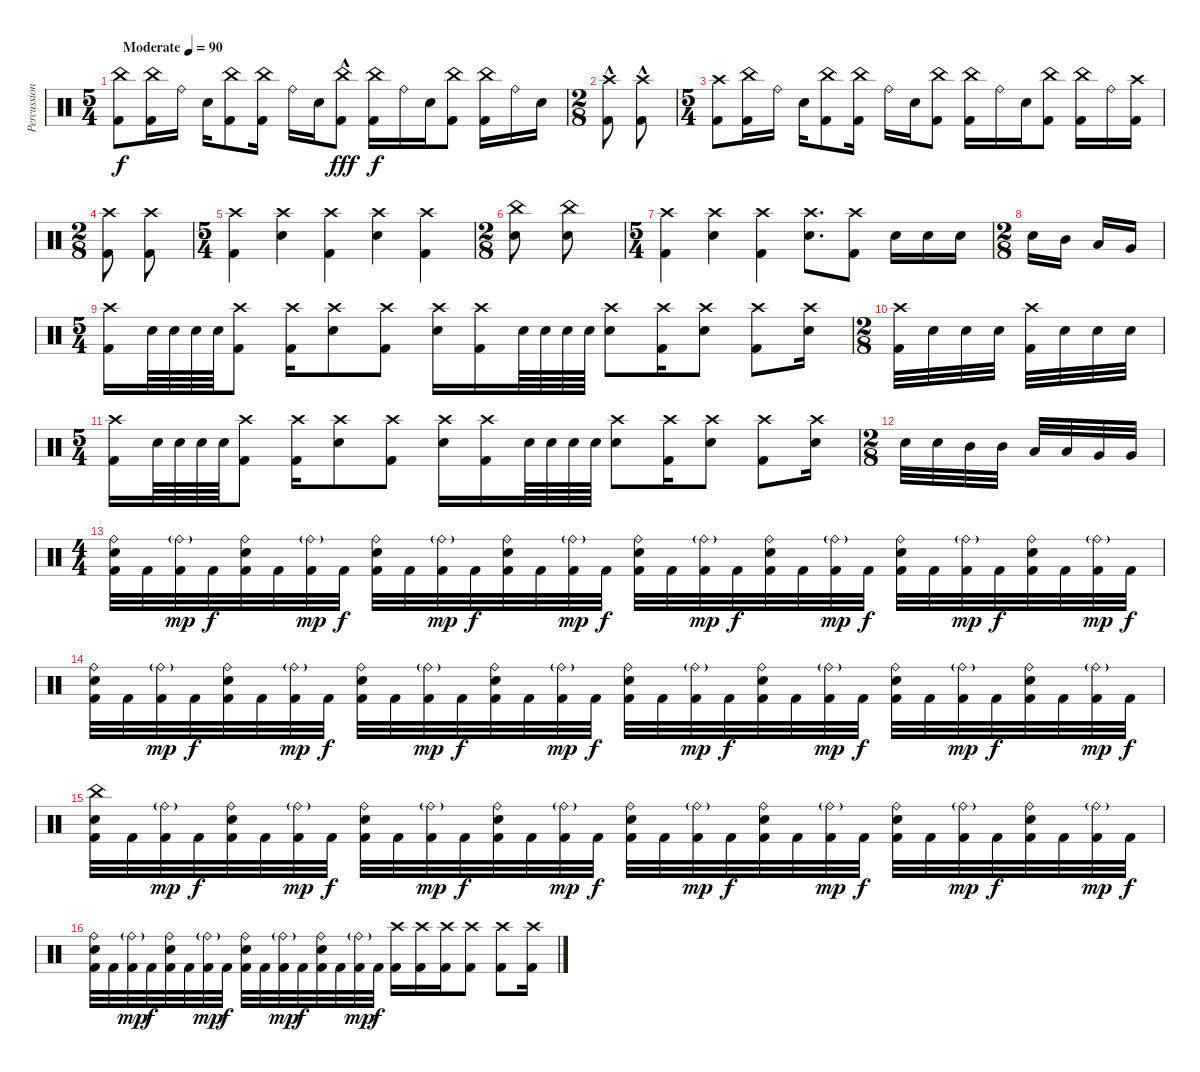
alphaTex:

\track ("Percussion" "Percussion") {instrument percussion}
\staff {score}
\articulation defaults
\ts (5 4)
\tempo (90 "Moderate")
\clef neutral
\ks c
("China (hit)" "Kick (hit) 2").8{dy f} ("China (hit)" "Kick (hit) 2").16 "Ride (bell)".16 "Snare (hit) 2".16 ("China (hit)" "Kick (hit) 2").8 ("China (hit)" "Kick (hit) 2").16 "Ride (bell)".16 "Snare (hit) 2".16 ("China (hit)" "Kick (hit) 2"{hac}).8{dy fff} ("China (hit)" "Kick (hit) 2").16{dy f} "Ride (bell)".16 "Snare (hit) 2".16 ("China (hit)" "Kick (hit) 2").8 ("China (hit)" "Kick (hit) 2").16 "Ride (bell)".16 "Snare (hit) 2".16 |
\ts (2 8)
("Crash high (hit)" "Kick (hit) 2"{hac}).8 ("Crash high (hit)" "Kick (hit) 2"{hac}).8 |
\ts (5 4)
("Crash high (hit)" "Kick (hit) 2").8 ("China (hit)" "Kick (hit) 2").16 "Ride (bell)".16 "Snare (hit) 2".16 ("China (hit)" "Kick (hit) 2").8 ("China (hit)" "Kick (hit) 2").16 "Ride (bell)".16 "Snare (hit) 2".16 ("China (hit)" "Kick (hit) 2").8 ("China (hit)" "Kick (hit) 2").16 "Ride (bell)".16 "Snare (hit) 2".16 ("China (hit)" "Kick (hit) 2").8 ("China (hit)" "Kick (hit) 2").16 "Ride (bell)".16 ("Crash high (hit)" "Kick (hit) 2").16 |
\ts (2 8)
("Crash high (hit)" "Kick (hit) 2").8 ("Crash high (hit)" "Kick (hit) 2").8 |
\ts (5 4)
("Crash high (hit)" "Kick (hit) 2").4 ("Crash high (hit)" "Snare (hit) 2").4 ("Crash high (hit)" "Kick (hit) 2").4 ("Crash high (hit)" "Snare (hit) 2").4 ("Crash high (hit)" "Kick (hit) 2").4 |
\ts (2 8)
("China (hit)" "Snare (hit) 2").8 ("China (hit)" "Snare (hit) 2").8 |
\ts (5 4)
("Crash high (hit)" "Kick (hit) 2").4 ("Crash high (hit)" "Snare (hit) 2").4 ("Crash high (hit)" "Kick (hit) 2").4 ("Crash high (hit)" "Snare (hit) 2").8{d} ("Crash high (hit)" "Kick (hit) 2").8 "Snare (hit) 2".16 "Snare (hit) 2".16 "Snare (hit) 2".16 |
\ts (2 8)
"Snare (hit) 2".16 "Mid Tom (hit)".16 "Low Tom (hit)".16 "Very Low Tom (hit)".16 |
\ts (5 4)
("Crash high (hit)" "Kick (hit) 2").16 "Snare (hit) 2".64 "Snare (hit) 2".64 "Snare (hit) 2".64 "Snare (hit) 2".64 ("Crash high (hit)" "Kick (hit) 2").8 ("Crash high (hit)" "Kick (hit) 2").16 ("Crash high (hit)" "Snare (hit) 2").8 ("Crash high (hit)" "Kick (hit) 2").8 ("Crash high (hit)" "Snare (hit) 2").16 ("Crash high (hit)" "Kick (hit) 2").16 "Snare (hit) 2".64 "Snare (hit) 2".64 "Snare (hit) 2".64 "Snare (hit) 2".64 ("Crash high (hit)" "Snare (hit) 2").8 ("Crash high (hit)" "Kick (hit) 2").16 ("Crash high (hit)" "Snare (hit) 2").8 ("Crash high (hit)" "Kick (hit) 2").8 ("Crash high (hit)" "Snare (hit) 2").16 |
\ts (2 8)
("Crash high (hit)" "Kick (hit) 2").32 "Snare (hit) 2".32 "Snare (hit) 2".32 "Snare (hit) 2".32 ("Crash high (hit)" "Kick (hit) 2").32 "Snare (hit) 2".32 "Snare (hit) 2".32 "Snare (hit) 2".32 |
\ts (5 4)
("Crash high (hit)" "Kick (hit) 2").16 "Snare (hit) 2".64 "Snare (hit) 2".64 "Snare (hit) 2".64 "Snare (hit) 2".64 ("Crash high (hit)" "Kick (hit) 2").8 ("Crash high (hit)" "Kick (hit) 2").16 ("Crash high (hit)" "Snare (hit) 2").8 ("Crash high (hit)" "Kick (hit) 2").8 ("Crash high (hit)" "Snare (hit) 2").16 ("Crash high (hit)" "Kick (hit) 2").16 "Snare (hit) 2".64 "Snare (hit) 2".64 "Snare (hit) 2".64 "Snare (hit) 2".64 ("Crash high (hit)" "Snare (hit) 2").8 ("Crash high (hit)" "Kick (hit) 2").16 ("Crash high (hit)" "Snare (hit) 2").8 ("Crash high (hit)" "Kick (hit) 2").8 ("Crash high (hit)" "Snare (hit) 2").16 |
\ts (2 8)
"Snare (hit) 2".32 "Snare (hit) 2".32 "Mid Tom (hit)".32 "Mid Tom (hit)".32 "Low Tom (hit)".32 "Low Tom (hit)".32 "Very Low Tom (hit)".32 "Very Low Tom (hit)".32 |
\ts (4 4)
("Ride (bell)" "Snare (hit) 2" "Kick (hit) 2").32 "Kick (hit) 2".32 ("Ride (bell)"{g} "Kick (hit) 2").32{dy mp} "Kick (hit) 2".32{dy f} ("Ride (bell)" "Snare (hit) 2" "Kick (hit) 2").32 "Kick (hit) 2".32 ("Ride (bell)"{g} "Kick (hit) 2").32{dy mp} "Kick (hit) 2".32{dy f} ("Ride (bell)" "Snare (hit) 2" "Kick (hit) 2").32 "Kick (hit) 2".32 ("Ride (bell)"{g} "Kick (hit) 2").32{dy mp} "Kick (hit) 2".32{dy f} ("Ride (bell)" "Snare (hit) 2" "Kick (hit) 2").32 "Kick (hit) 2".32 ("Ride (bell)"{g} "Kick (hit) 2").32{dy mp} "Kick (hit) 2".32{dy f} ("Ride (bell)" "Snare (hit) 2" "Kick (hit) 2").32 "Kick (hit) 2".32 ("Ride (bell)"{g} "Kick (hit) 2").32{dy mp} "Kick (hit) 2".32{dy f} ("Ride (bell)" "Snare (hit) 2" "Kick (hit) 2").32 "Kick (hit) 2".32 ("Ride (bell)"{g} "Kick (hit) 2").32{dy mp} "Kick (hit) 2".32{dy f} ("Ride (bell)" "Snare (hit) 2" "Kick (hit) 2").32 "Kick (hit) 2".32 ("Ride (bell)"{g} "Kick (hit) 2").32{dy mp} "Kick (hit) 2".32{dy f} ("Ride (bell)" "Snare (hit) 2" "Kick (hit) 2").32 "Kick (hit) 2".32 ("Ride (bell)"{g} "Kick (hit) 2").32{dy mp} "Kick (hit) 2".32{dy f} |
("Ride (bell)" "Snare (hit) 2" "Kick (hit) 2").32 "Kick (hit) 2".32 ("Ride (bell)"{g} "Kick (hit) 2").32{dy mp} "Kick (hit) 2".32{dy f} ("Ride (bell)" "Snare (hit) 2" "Kick (hit) 2").32 "Kick (hit) 2".32 ("Ride (bell)"{g} "Kick (hit) 2").32{dy mp} "Kick (hit) 2".32{dy f} ("Ride (bell)" "Snare (hit) 2" "Kick (hit) 2").32 "Kick (hit) 2".32 ("Ride (bell)"{g} "Kick (hit) 2").32{dy mp} "Kick (hit) 2".32{dy f} ("Ride (bell)" "Snare (hit) 2" "Kick (hit) 2").32 "Kick (hit) 2".32 ("Ride (bell)"{g} "Kick (hit) 2").32{dy mp} "Kick (hit) 2".32{dy f} ("Ride (bell)" "Snare (hit) 2" "Kick (hit) 2").32 "Kick (hit) 2".32 ("Ride (bell)"{g} "Kick (hit) 2").32{dy mp} "Kick (hit) 2".32{dy f} ("Ride (bell)" "Snare (hit) 2" "Kick (hit) 2").32 "Kick (hit) 2".32 ("Ride (bell)"{g} "Kick (hit) 2").32{dy mp} "Kick (hit) 2".32{dy f} ("Ride (bell)" "Snare (hit) 2" "Kick (hit) 2").32 "Kick (hit) 2".32 ("Ride (bell)"{g} "Kick (hit) 2").32{dy mp} "Kick (hit) 2".32{dy f} ("Ride (bell)" "Snare (hit) 2" "Kick (hit) 2").32 "Kick (hit) 2".32 ("Ride (bell)"{g} "Kick (hit) 2").32{dy mp} "Kick (hit) 2".32{dy f} |
("China (hit)" "Snare (hit) 2" "Kick (hit) 2").32 "Kick (hit) 2".32 ("Ride (bell)"{g} "Kick (hit) 2").32{dy mp} "Kick (hit) 2".32{dy f} ("Ride (bell)" "Snare (hit) 2" "Kick (hit) 2").32 "Kick (hit) 2".32 ("Ride (bell)"{g} "Kick (hit) 2").32{dy mp} "Kick (hit) 2".32{dy f} ("Ride (bell)" "Snare (hit) 2" "Kick (hit) 2").32 "Kick (hit) 2".32 ("Ride (bell)"{g} "Kick (hit) 2").32{dy mp} "Kick (hit) 2".32{dy f} ("Ride (bell)" "Snare (hit) 2" "Kick (hit) 2").32 "Kick (hit) 2".32 ("Ride (bell)"{g} "Kick (hit) 2").32{dy mp} "Kick (hit) 2".32{dy f} ("Ride (bell)" "Snare (hit) 2" "Kick (hit) 2").32 "Kick (hit) 2".32 ("Ride (bell)"{g} "Kick (hit) 2").32{dy mp} "Kick (hit) 2".32{dy f} ("Ride (bell)" "Snare (hit) 2" "Kick (hit) 2").32 "Kick (hit) 2".32 ("Ride (bell)"{g} "Kick (hit) 2").32{dy mp} "Kick (hit) 2".32{dy f} ("Ride (bell)" "Snare (hit) 2" "Kick (hit) 2").32 "Kick (hit) 2".32 ("Ride (bell)"{g} "Kick (hit) 2").32{dy mp} "Kick (hit) 2".32{dy f} ("Ride (bell)" "Snare (hit) 2" "Kick (hit) 2").32 "Kick (hit) 2".32 ("Ride (bell)"{g} "Kick (hit) 2").32{dy mp} "Kick (hit) 2".32{dy f} |
("Ride (bell)" "Snare (hit) 2" "Kick (hit) 2").32 "Kick (hit) 2".32 ("Ride (bell)"{g} "Kick (hit) 2").32{dy mp} "Kick (hit) 2".32{dy f} ("Ride (bell)" "Snare (hit) 2" "Kick (hit) 2").32 "Kick (hit) 2".32 ("Ride (bell)"{g} "Kick (hit) 2").32{dy mp} "Kick (hit) 2".32{dy f} ("Ride (bell)" "Snare (hit) 2" "Kick (hit) 2").32 "Kick (hit) 2".32 ("Ride (bell)"{g} "Kick (hit) 2").32{dy mp} "Kick (hit) 2".32{dy f} ("Ride (bell)" "Snare (hit) 2" "Kick (hit) 2").32 "Kick (hit) 2".32 ("Ride (bell)"{g} "Kick (hit) 2").32{dy mp} "Kick (hit) 2".32{dy f} ("Crash high (hit)" "Kick (hit) 2").16 ("Crash high (hit)" "Kick (hit) 2").16 ("Crash high (hit)" "Kick (hit) 2").16 ("Crash high (hit)" "Kick (hit) 2").8 ("Crash high (hit)" "Kick (hit) 2").8 ("Crash high (hit)" "Kick (hit) 2").16
